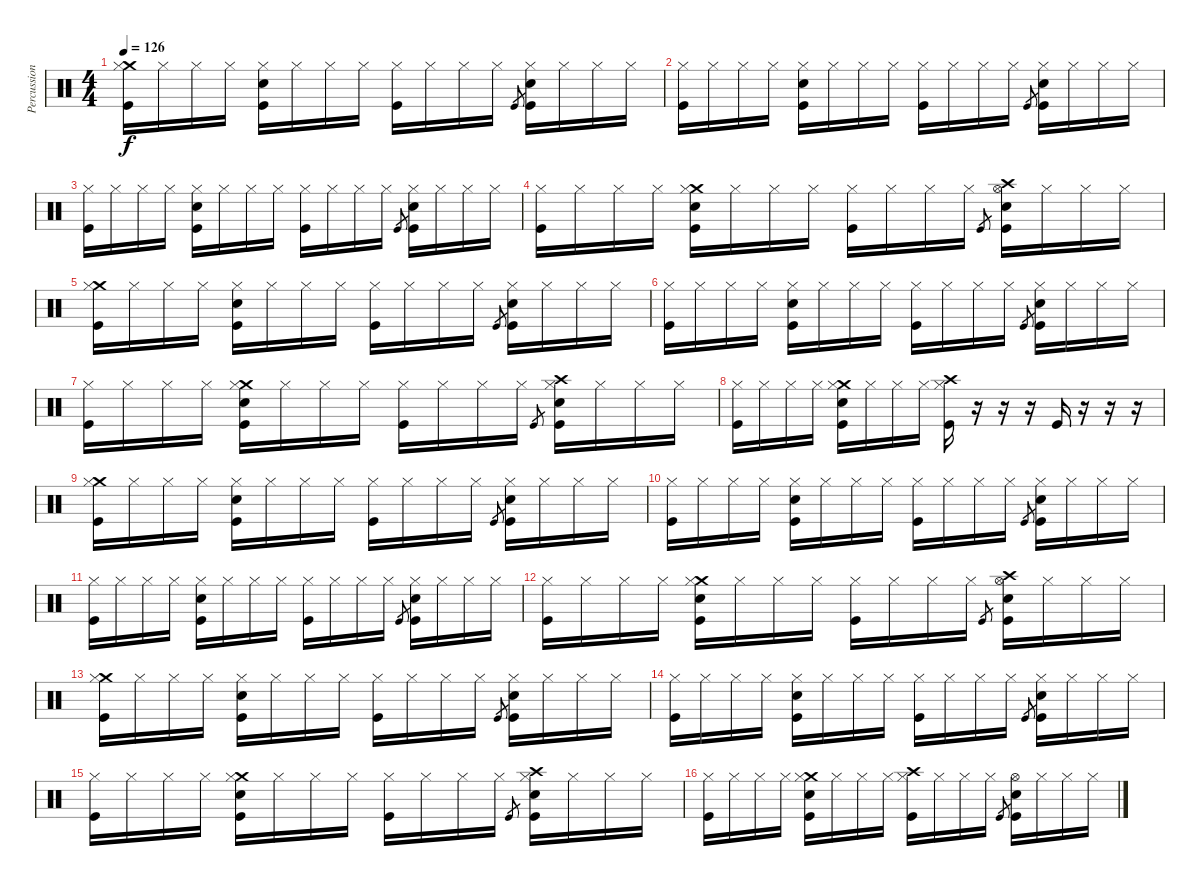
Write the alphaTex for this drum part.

\track ("Percussion" "Percussion") {instrument percussion}
\staff {score}
\articulation defaults
\ts (4 4)
\tempo 126
\clef neutral
\ks c
("Crash medium (hit)" "Hi-Hat (closed)" "Kick (hit)").16{dy f} "Hi-Hat (closed)".16 "Hi-Hat (closed)".16 "Hi-Hat (closed)".16 ("Hi-Hat (closed)" "Snare (hit) 2" "Kick (hit)").16 "Hi-Hat (closed)".16 "Hi-Hat (closed)".16 "Hi-Hat (closed)".16 ("Hi-Hat (closed)" "Kick (hit)").16 "Hi-Hat (closed)".16 "Hi-Hat (closed)".16 "Hi-Hat (closed)".16 "Kick (hit)".8{gr} ("Hi-Hat (closed)" "Snare (hit) 2" "Kick (hit)").16 "Hi-Hat (closed)".16 "Hi-Hat (closed)".16 "Hi-Hat (closed)".16 |
("Hi-Hat (closed)" "Kick (hit)").16 "Hi-Hat (closed)".16 "Hi-Hat (closed)".16 "Hi-Hat (closed)".16 ("Hi-Hat (closed)" "Snare (hit) 2" "Kick (hit)").16 "Hi-Hat (closed)".16 "Hi-Hat (closed)".16 "Hi-Hat (closed)".16 ("Hi-Hat (closed)" "Kick (hit)").16 "Hi-Hat (closed)".16 "Hi-Hat (closed)".16 "Hi-Hat (closed)".16 "Kick (hit)".8{gr} ("Hi-Hat (closed)" "Snare (hit) 2" "Kick (hit)").16 "Hi-Hat (closed)".16 "Hi-Hat (closed)".16 "Hi-Hat (closed)".16 |
("Hi-Hat (closed)" "Kick (hit)").16 "Hi-Hat (closed)".16 "Hi-Hat (closed)".16 "Hi-Hat (closed)".16 ("Hi-Hat (closed)" "Snare (hit) 2" "Kick (hit)").16 "Hi-Hat (closed)".16 "Hi-Hat (closed)".16 "Hi-Hat (closed)".16 ("Hi-Hat (closed)" "Kick (hit)").16 "Hi-Hat (closed)".16 "Hi-Hat (closed)".16 "Hi-Hat (closed)".16 "Kick (hit)".8{gr} ("Hi-Hat (closed)" "Snare (hit) 2" "Kick (hit)").16 "Hi-Hat (closed)".16 "Hi-Hat (closed)".16 "Hi-Hat (closed)".16 |
("Hi-Hat (closed)" "Kick (hit)").16 "Hi-Hat (closed)".16 "Hi-Hat (closed)".16 "Hi-Hat (closed)".16 ("Crash medium (hit)" "Hi-Hat (closed)" "Snare (hit) 2" "Kick (hit)").16 "Hi-Hat (closed)".16 "Hi-Hat (closed)".16 "Hi-Hat (closed)".16 ("Hi-Hat (closed)" "Kick (hit)").16 "Hi-Hat (closed)".16 "Hi-Hat (closed)".16 "Hi-Hat (closed)".16 "Kick (hit)".8{gr} ("Crash high (hit)" "Hi-Hat (open)" "Snare (hit) 2" "Kick (hit)").16 "Hi-Hat (closed)".16 "Hi-Hat (closed)".16 "Hi-Hat (closed)".16 |
("Crash medium (hit)" "Hi-Hat (closed)" "Kick (hit)").16 "Hi-Hat (closed)".16 "Hi-Hat (closed)".16 "Hi-Hat (closed)".16 ("Hi-Hat (closed)" "Snare (hit) 2" "Kick (hit)").16 "Hi-Hat (closed)".16 "Hi-Hat (closed)".16 "Hi-Hat (closed)".16 ("Hi-Hat (closed)" "Kick (hit)").16 "Hi-Hat (closed)".16 "Hi-Hat (closed)".16 "Hi-Hat (closed)".16 "Kick (hit)".8{gr} ("Hi-Hat (closed)" "Snare (hit) 2" "Kick (hit)").16 "Hi-Hat (closed)".16 "Hi-Hat (closed)".16 "Hi-Hat (closed)".16 |
("Hi-Hat (closed)" "Kick (hit)").16 "Hi-Hat (closed)".16 "Hi-Hat (closed)".16 "Hi-Hat (closed)".16 ("Hi-Hat (closed)" "Snare (hit) 2" "Kick (hit)").16 "Hi-Hat (closed)".16 "Hi-Hat (closed)".16 "Hi-Hat (closed)".16 ("Hi-Hat (closed)" "Kick (hit)").16 "Hi-Hat (closed)".16 "Hi-Hat (closed)".16 "Hi-Hat (closed)".16 "Kick (hit)".8{gr} ("Hi-Hat (closed)" "Snare (hit) 2" "Kick (hit)").16 "Hi-Hat (closed)".16 "Hi-Hat (closed)".16 "Hi-Hat (closed)".16 |
("Hi-Hat (closed)" "Kick (hit)").16 "Hi-Hat (closed)".16 "Hi-Hat (closed)".16 "Hi-Hat (closed)".16 ("Crash medium (hit)" "Hi-Hat (closed)" "Snare (hit) 2" "Kick (hit)").16 "Hi-Hat (closed)".16 "Hi-Hat (closed)".16 "Hi-Hat (closed)".16 ("Hi-Hat (closed)" "Kick (hit)").16 "Hi-Hat (closed)".16 "Hi-Hat (closed)".16 "Hi-Hat (closed)".16 "Kick (hit)".8{gr} ("Crash high (hit)" "Hi-Hat (closed)" "Snare (hit) 2" "Kick (hit)").16 "Hi-Hat (closed)".16 "Hi-Hat (closed)".16 "Hi-Hat (closed)".16 |
("Hi-Hat (closed)" "Kick (hit)").16 "Hi-Hat (closed)".16 "Hi-Hat (closed)".16 "Hi-Hat (closed)".16 ("Crash medium (hit)" "Hi-Hat (closed)" "Snare (hit) 2" "Kick (hit)").16 "Hi-Hat (closed)".16 "Hi-Hat (closed)".16 "Hi-Hat (closed)".16 ("Crash high (hit)" "Hi-Hat (closed)" "Kick (hit)").16 r.16 r.16 r.16 "Kick (hit)".16 r.16 r.16 r.16 |
("Crash medium (hit)" "Hi-Hat (closed)" "Kick (hit)").16 "Hi-Hat (closed)".16 "Hi-Hat (closed)".16 "Hi-Hat (closed)".16 ("Hi-Hat (closed)" "Snare (hit) 2" "Kick (hit)").16 "Hi-Hat (closed)".16 "Hi-Hat (closed)".16 "Hi-Hat (closed)".16 ("Hi-Hat (closed)" "Kick (hit)").16 "Hi-Hat (closed)".16 "Hi-Hat (closed)".16 "Hi-Hat (closed)".16 "Kick (hit)".8{gr} ("Hi-Hat (closed)" "Snare (hit) 2" "Kick (hit)").16 "Hi-Hat (closed)".16 "Hi-Hat (closed)".16 "Hi-Hat (closed)".16 |
("Hi-Hat (closed)" "Kick (hit)").16 "Hi-Hat (closed)".16 "Hi-Hat (closed)".16 "Hi-Hat (closed)".16 ("Hi-Hat (closed)" "Snare (hit) 2" "Kick (hit)").16 "Hi-Hat (closed)".16 "Hi-Hat (closed)".16 "Hi-Hat (closed)".16 ("Hi-Hat (closed)" "Kick (hit)").16 "Hi-Hat (closed)".16 "Hi-Hat (closed)".16 "Hi-Hat (closed)".16 "Kick (hit)".8{gr} ("Hi-Hat (closed)" "Snare (hit) 2" "Kick (hit)").16 "Hi-Hat (closed)".16 "Hi-Hat (closed)".16 "Hi-Hat (closed)".16 |
("Hi-Hat (closed)" "Kick (hit)").16 "Hi-Hat (closed)".16 "Hi-Hat (closed)".16 "Hi-Hat (closed)".16 ("Hi-Hat (closed)" "Snare (hit) 2" "Kick (hit)").16 "Hi-Hat (closed)".16 "Hi-Hat (closed)".16 "Hi-Hat (closed)".16 ("Hi-Hat (closed)" "Kick (hit)").16 "Hi-Hat (closed)".16 "Hi-Hat (closed)".16 "Hi-Hat (closed)".16 "Kick (hit)".8{gr} ("Hi-Hat (closed)" "Snare (hit) 2" "Kick (hit)").16 "Hi-Hat (closed)".16 "Hi-Hat (closed)".16 "Hi-Hat (closed)".16 |
("Hi-Hat (closed)" "Kick (hit)").16 "Hi-Hat (closed)".16 "Hi-Hat (closed)".16 "Hi-Hat (closed)".16 ("Crash medium (hit)" "Hi-Hat (closed)" "Snare (hit) 2" "Kick (hit)").16 "Hi-Hat (closed)".16 "Hi-Hat (closed)".16 "Hi-Hat (closed)".16 ("Hi-Hat (closed)" "Kick (hit)").16 "Hi-Hat (closed)".16 "Hi-Hat (closed)".16 "Hi-Hat (closed)".16 "Kick (hit)".8{gr} ("Crash high (hit)" "Hi-Hat (open)" "Snare (hit) 2" "Kick (hit)").16 "Hi-Hat (closed)".16 "Hi-Hat (closed)".16 "Hi-Hat (closed)".16 |
("Crash medium (hit)" "Hi-Hat (closed)" "Kick (hit)").16 "Hi-Hat (closed)".16 "Hi-Hat (closed)".16 "Hi-Hat (closed)".16 ("Hi-Hat (closed)" "Snare (hit) 2" "Kick (hit)").16 "Hi-Hat (closed)".16 "Hi-Hat (closed)".16 "Hi-Hat (closed)".16 ("Hi-Hat (closed)" "Kick (hit)").16 "Hi-Hat (closed)".16 "Hi-Hat (closed)".16 "Hi-Hat (closed)".16 "Kick (hit)".8{gr} ("Hi-Hat (closed)" "Snare (hit) 2" "Kick (hit)").16 "Hi-Hat (closed)".16 "Hi-Hat (closed)".16 "Hi-Hat (closed)".16 |
("Hi-Hat (closed)" "Kick (hit)").16 "Hi-Hat (closed)".16 "Hi-Hat (closed)".16 "Hi-Hat (closed)".16 ("Hi-Hat (closed)" "Snare (hit) 2" "Kick (hit)").16 "Hi-Hat (closed)".16 "Hi-Hat (closed)".16 "Hi-Hat (closed)".16 ("Hi-Hat (closed)" "Kick (hit)").16 "Hi-Hat (closed)".16 "Hi-Hat (closed)".16 "Hi-Hat (closed)".16 "Kick (hit)".8{gr} ("Hi-Hat (closed)" "Snare (hit) 2" "Kick (hit)").16 "Hi-Hat (closed)".16 "Hi-Hat (closed)".16 "Hi-Hat (closed)".16 |
("Hi-Hat (closed)" "Kick (hit)").16 "Hi-Hat (closed)".16 "Hi-Hat (closed)".16 "Hi-Hat (closed)".16 ("Crash medium (hit)" "Hi-Hat (closed)" "Snare (hit) 2" "Kick (hit)").16 "Hi-Hat (closed)".16 "Hi-Hat (closed)".16 "Hi-Hat (closed)".16 ("Hi-Hat (closed)" "Kick (hit)").16 "Hi-Hat (closed)".16 "Hi-Hat (closed)".16 "Hi-Hat (closed)".16 "Kick (hit)".8{gr} ("Crash high (hit)" "Hi-Hat (closed)" "Snare (hit) 2" "Kick (hit)").16 "Hi-Hat (closed)".16 "Hi-Hat (closed)".16 "Hi-Hat (closed)".16 |
("Hi-Hat (closed)" "Kick (hit)").16 "Hi-Hat (closed)".16 "Hi-Hat (closed)".16 "Hi-Hat (closed)".16 ("Crash medium (hit)" "Hi-Hat (closed)" "Snare (hit) 2" "Kick (hit)").16 "Hi-Hat (closed)".16 "Hi-Hat (closed)".16 "Hi-Hat (closed)".16 ("Crash high (hit)" "Hi-Hat (closed)" "Kick (hit)").16 "Hi-Hat (closed)".16 "Hi-Hat (closed)".16 "Hi-Hat (closed)".16 "Kick (hit)".8{gr} ("Hi-Hat (open)" "Snare (hit) 2" "Kick (hit)").16 "Hi-Hat (closed)".16 "Hi-Hat (closed)".16 "Hi-Hat (closed)".16
